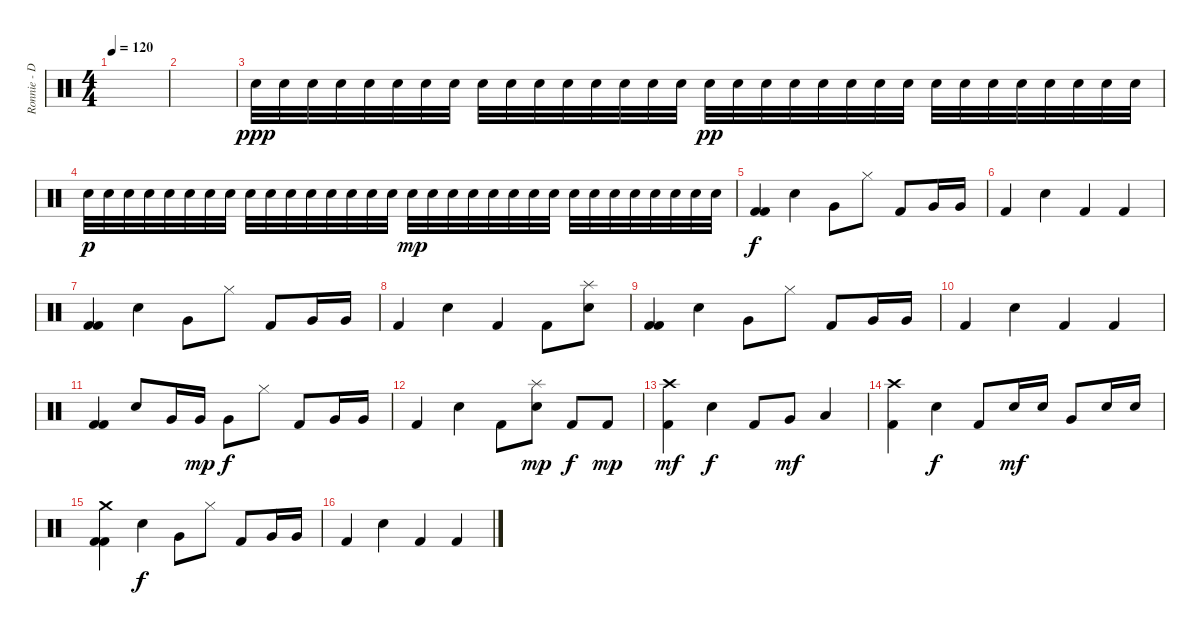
\track ("Ronnie - Drums" "Ronnie - D") {instrument percussion}
\staff {score}
\articulation defaults
\ts (4 4)
\tempo 120
\clef neutral
\ks c
|
|
"Snare (hit) 2".32{dy ppp} "Snare (hit) 2".32 "Snare (hit) 2".32 "Snare (hit) 2".32 "Snare (hit) 2".32 "Snare (hit) 2".32 "Snare (hit) 2".32 "Snare (hit) 2".32 "Snare (hit) 2".32 "Snare (hit) 2".32 "Snare (hit) 2".32 "Snare (hit) 2".32 "Snare (hit) 2".32 "Snare (hit) 2".32 "Snare (hit) 2".32 "Snare (hit) 2".32 "Snare (hit) 2".32{dy pp} "Snare (hit) 2".32 "Snare (hit) 2".32 "Snare (hit) 2".32 "Snare (hit) 2".32 "Snare (hit) 2".32 "Snare (hit) 2".32 "Snare (hit) 2".32 "Snare (hit) 2".32 "Snare (hit) 2".32 "Snare (hit) 2".32 "Snare (hit) 2".32 "Snare (hit) 2".32 "Snare (hit) 2".32 "Snare (hit) 2".32 "Snare (hit) 2".32 |
"Snare (hit) 2".32{dy p} "Snare (hit) 2".32 "Snare (hit) 2".32 "Snare (hit) 2".32 "Snare (hit) 2".32 "Snare (hit) 2".32 "Snare (hit) 2".32 "Snare (hit) 2".32 "Snare (hit) 2".32 "Snare (hit) 2".32 "Snare (hit) 2".32 "Snare (hit) 2".32 "Snare (hit) 2".32 "Snare (hit) 2".32 "Snare (hit) 2".32 "Snare (hit) 2".32 "Snare (hit) 2".32{dy mp} "Snare (hit) 2".32 "Snare (hit) 2".32 "Snare (hit) 2".32 "Snare (hit) 2".32 "Snare (hit) 2".32 "Snare (hit) 2".32 "Snare (hit) 2".32 "Snare (hit) 2".32 "Snare (hit) 2".32 "Snare (hit) 2".32 "Snare (hit) 2".32 "Snare (hit) 2".32 "Snare (hit) 2".32 "Snare (hit) 2".32 "Snare (hit) 2".32 |
("Kick (hit) 2" "Kick (hit) 2").4{dy f} "Snare (hit) 2".4 "Very Low Tom (hit)".8 "Hi-Hat (closed)".8 "Kick (hit) 2".8 "Very Low Tom (hit)".16 "Very Low Tom (hit)".16 |
"Kick (hit) 2".4 "Snare (hit) 2".4 "Kick (hit) 2".4 "Kick (hit) 2".4 |
("Kick (hit) 2" "Kick (hit) 2").4 "Snare (hit) 2".4 "Very Low Tom (hit)".8 "Hi-Hat (closed)".8 "Kick (hit) 2".8 "Very Low Tom (hit)".16 "Very Low Tom (hit)".16 |
"Kick (hit) 2".4 "Snare (hit) 2".4 "Kick (hit) 2".4 "Kick (hit) 2".8 ("Splash (hit)" "Snare (hit) 2").8 |
("Kick (hit) 2" "Kick (hit) 2").4 "Snare (hit) 2".4 "Very Low Tom (hit)".8 "Hi-Hat (closed)".8 "Kick (hit) 2".8 "Very Low Tom (hit)".16 "Very Low Tom (hit)".16 |
"Kick (hit) 2".4 "Snare (hit) 2".4 "Kick (hit) 2".4 "Kick (hit) 2".4 |
("Kick (hit) 2" "Kick (hit) 2").4 "Snare (hit) 2".8 "Very Low Tom (hit)".16 "Very Low Tom (hit)".16{dy mp} "Very Low Tom (hit)".8{dy f} "Hi-Hat (closed)".8 "Kick (hit) 2".8 "Very Low Tom (hit)".16 "Very Low Tom (hit)".16 |
"Kick (hit) 2".4 "Snare (hit) 2".4 "Kick (hit) 2".8 ("Splash (hit)" "Snare (hit) 2").8{dy mp} "Kick (hit) 2".8{dy f} "Kick (hit) 2".8{dy mp} |
("Crash high (hit)" "Kick (hit) 2").4{dy mf} "Snare (hit) 2".4{dy f} "Kick (hit) 2".8 "Very Low Tom (hit)".8{dy mf} "Low Floor Tom (hit)".4 |
("Crash high (hit)" "Kick (hit) 2").4 "Snare (hit) 2".4{dy f} "Kick (hit) 2".8 "Snare (hit) 2".16{dy mf} "Snare (hit) 2".16 "Very Low Tom (hit)".8 "Snare (hit) 2".16 "Snare (hit) 2".16 |
("Crash medium (hit)" "Kick (hit) 2" "Kick (hit) 2").4 "Snare (hit) 2".4{dy f} "Very Low Tom (hit)".8 "Hi-Hat (closed)".8 "Kick (hit) 2".8 "Very Low Tom (hit)".16 "Very Low Tom (hit)".16 |
"Kick (hit) 2".4 "Snare (hit) 2".4 "Kick (hit) 2".4 "Kick (hit) 2".4
